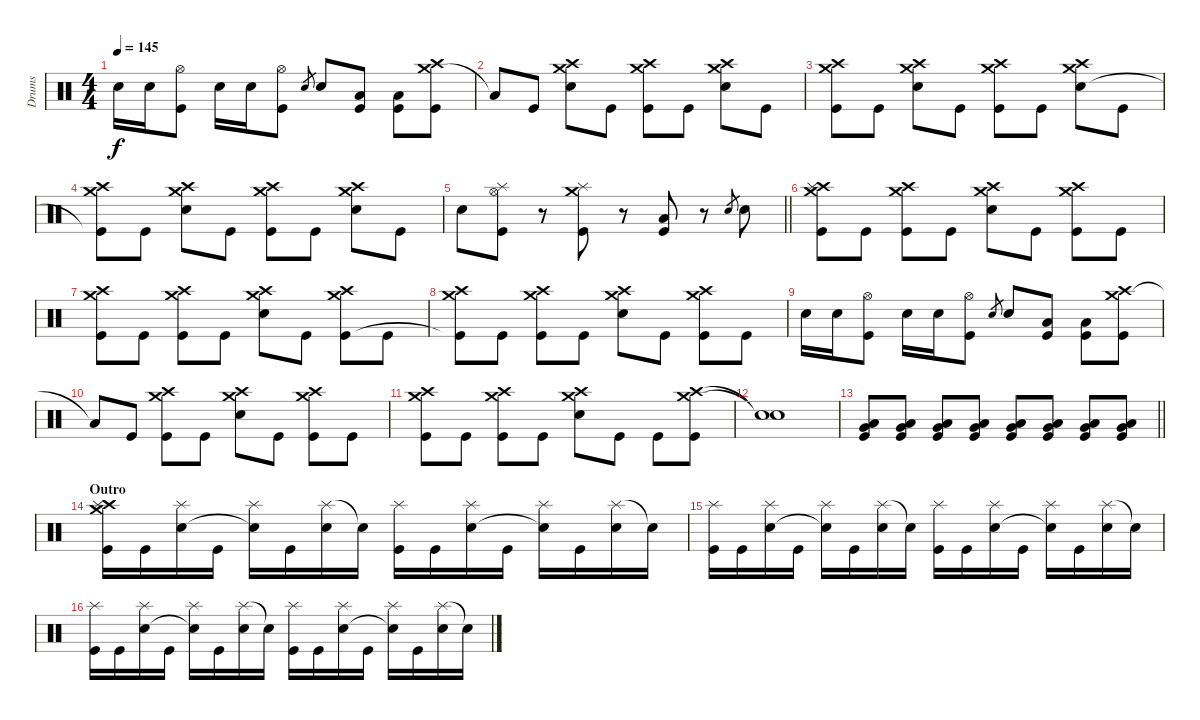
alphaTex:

\track ("Drums" "Drums") {instrument percussion}
\staff {score}
\articulation defaults
\ts (4 4)
\tempo 145
\clef neutral
\ks c "Electric Snare (hit)".16{dy f} "Electric Snare (hit)".16
("Hi-Hat (open)" "Kick (hit)").8 "Electric Snare (hit)".16 "Electric Snare (hit)".16 ("Hi-Hat (open)" "Kick (hit)").8 "Electric Snare (hit)".8{gr} "Electric Snare (hit)".8 ("Kick (hit)" "Low Floor Tom (hit)").8 ("Kick (hit)" "Low Floor Tom (hit)").8 ("Crash medium (hit)" "Crash high (hit)" "Kick (hit)").8 |
"Low Floor Tom (hit)"{t}.8 "Kick (hit)".8 ("Crash medium (hit)" "Crash high (hit)" "Electric Snare (hit)").8 "Kick (hit)".8 ("Crash medium (hit)" "Crash high (hit)" "Kick (hit)").8 "Kick (hit)".8 ("Crash medium (hit)" "Crash high (hit)" "Electric Snare (hit)").8 "Kick (hit)".8 |
("Crash medium (hit)" "Crash high (hit)" "Kick (hit)").8 "Kick (hit)".8 ("Crash medium (hit)" "Crash high (hit)" "Electric Snare (hit)").8 "Kick (hit)".8 ("Crash medium (hit)" "Crash high (hit)" "Kick (hit)").8 "Kick (hit)".8 ("Crash medium (hit)" "Crash high (hit)" "Electric Snare (hit)").8 "Kick (hit)".8 |
("Crash medium (hit)" "Crash high (hit)" "Kick (hit)"{t}).8 "Kick (hit)".8 ("Crash medium (hit)" "Crash high (hit)" "Electric Snare (hit)").8 "Kick (hit)".8 ("Crash medium (hit)" "Crash high (hit)" "Kick (hit)").8 "Kick (hit)".8 ("Crash medium (hit)" "Crash high (hit)" "Electric Snare (hit)").8 "Kick (hit)".8 |
\barLineRight lightlight "Electric Snare (hit)".8
("Hi-Hat (open)" "Splash (hit)" "Kick (hit)").8 r.8 ("Crash medium (hit)" "Splash (hit)" "Kick (hit)").8 r.8 ("Low Floor Tom (hit)" "Kick (hit)").8 r.8 "Electric Snare (hit)".8{gr} "Electric Snare (hit)".8 |
("Crash medium (hit)" "Crash high (hit)" "Splash (hit)" "Kick (hit)").8 "Kick (hit)".8 ("Crash medium (hit)" "Crash high (hit)" "Kick (hit)").8 "Kick (hit)".8 ("Crash medium (hit)" "Crash high (hit)" "Electric Snare (hit)").8 "Kick (hit)".8 ("Crash medium (hit)" "Crash high (hit)" "Kick (hit)").8 "Kick (hit)".8 |
("Crash medium (hit)" "Crash high (hit)" "Kick (hit)").8 "Kick (hit)".8 ("Crash medium (hit)" "Crash high (hit)" "Kick (hit)").8 "Kick (hit)".8 ("Crash medium (hit)" "Crash high (hit)" "Electric Snare (hit)").8 "Kick (hit)".8 ("Crash medium (hit)" "Crash high (hit)" "Kick (hit)").8 "Kick (hit)".8 |
("Crash medium (hit)" "Crash high (hit)" "Kick (hit)"{t}).8 "Kick (hit)".8 ("Crash medium (hit)" "Crash high (hit)" "Kick (hit)").8 "Kick (hit)".8 ("Crash medium (hit)" "Crash high (hit)" "Electric Snare (hit)").8 "Kick (hit)".8 ("Crash medium (hit)" "Crash high (hit)" "Kick (hit)").8 "Kick (hit)".8 |
"Electric Snare (hit)".16 "Electric Snare (hit)".16 ("Hi-Hat (open)" "Kick (hit)").8 "Electric Snare (hit)".16 "Electric Snare (hit)".16 ("Hi-Hat (open)" "Kick (hit)").8 "Electric Snare (hit)".8{gr} "Electric Snare (hit)".8 ("Kick (hit)" "Low Floor Tom (hit)").8 ("Kick (hit)" "Low Floor Tom (hit)").8 ("Crash medium (hit)" "Crash high (hit)" "Kick (hit)").8 |
"Low Floor Tom (hit)"{t}.8 "Kick (hit)".8 ("Crash medium (hit)" "Crash high (hit)" "Kick (hit)").8 "Kick (hit)".8 ("Crash medium (hit)" "Crash high (hit)" "Electric Snare (hit)").8 "Kick (hit)".8 ("Crash medium (hit)" "Crash high (hit)" "Kick (hit)").8 "Kick (hit)".8 |
("Crash medium (hit)" "Crash high (hit)" "Kick (hit)").8 "Kick (hit)".8 ("Crash medium (hit)" "Crash high (hit)" "Kick (hit)").8 "Kick (hit)".8 ("Crash medium (hit)" "Crash high (hit)" "Electric Snare (hit)").8 "Kick (hit)".8 "Kick (hit)".8 ("Crash medium (hit)" "Crash high (hit)" "Kick (hit)").8 |
("Snare (hit)"{t} "Snare (hit)"{t}).1 |
\barLineRight lightlight
("Very Low Tom (hit)" "Low Floor Tom (hit)" "Kick (hit)").8 ("Very Low Tom (hit)" "Low Floor Tom (hit)" "Kick (hit)").8 ("Very Low Tom (hit)" "Low Floor Tom (hit)" "Kick (hit)").8 ("Very Low Tom (hit)" "Low Floor Tom (hit)" "Kick (hit)").8 ("Very Low Tom (hit)" "Low Floor Tom (hit)" "Kick (hit)").8 ("Very Low Tom (hit)" "Low Floor Tom (hit)" "Kick (hit)").8 ("Very Low Tom (hit)" "Low Floor Tom (hit)" "Kick (hit)").8 ("Very Low Tom (hit)" "Low Floor Tom (hit)" "Kick (hit)").8 |
\section ("" "Outro")
("Crash medium (hit)" "Crash high (hit)" "Splash (hit)" "Kick (hit)").16 "Kick (hit)".16 ("Splash (hit)" "Electric Snare (hit)").16 "Kick (hit)".16 ("Splash (hit)" "Snare (hit)"{t}).16 "Kick (hit)".16 ("Splash (hit)" "Electric Snare (hit)").16 "Snare (hit)"{t}.16 ("Splash (hit)" "Kick (hit)").16 "Kick (hit)".16 ("Splash (hit)" "Electric Snare (hit)").16 "Kick (hit)".16 ("Splash (hit)" "Snare (hit)"{t}).16 "Kick (hit)".16 ("Splash (hit)" "Electric Snare (hit)").16 "Snare (hit)"{t}.16 |
("Splash (hit)" "Kick (hit)").16 "Kick (hit)".16 ("Splash (hit)" "Electric Snare (hit)").16 "Kick (hit)".16 ("Splash (hit)" "Snare (hit)"{t}).16 "Kick (hit)".16 ("Splash (hit)" "Electric Snare (hit)").16 "Snare (hit)"{t}.16 ("Splash (hit)" "Kick (hit)").16 "Kick (hit)".16 ("Splash (hit)" "Electric Snare (hit)").16 "Kick (hit)".16 ("Splash (hit)" "Snare (hit)"{t}).16 "Kick (hit)".16 ("Splash (hit)" "Electric Snare (hit)").16 "Snare (hit)"{t}.16 |
("Splash (hit)" "Kick (hit)").16 "Kick (hit)".16 ("Splash (hit)" "Electric Snare (hit)").16 "Kick (hit)".16 ("Splash (hit)" "Snare (hit)"{t}).16 "Kick (hit)".16 ("Splash (hit)" "Electric Snare (hit)").16 "Snare (hit)"{t}.16 ("Splash (hit)" "Kick (hit)").16 "Kick (hit)".16 ("Splash (hit)" "Electric Snare (hit)").16 "Kick (hit)".16 ("Splash (hit)" "Snare (hit)"{t}).16 "Kick (hit)".16 ("Splash (hit)" "Electric Snare (hit)").16 "Snare (hit)"{t}.16
